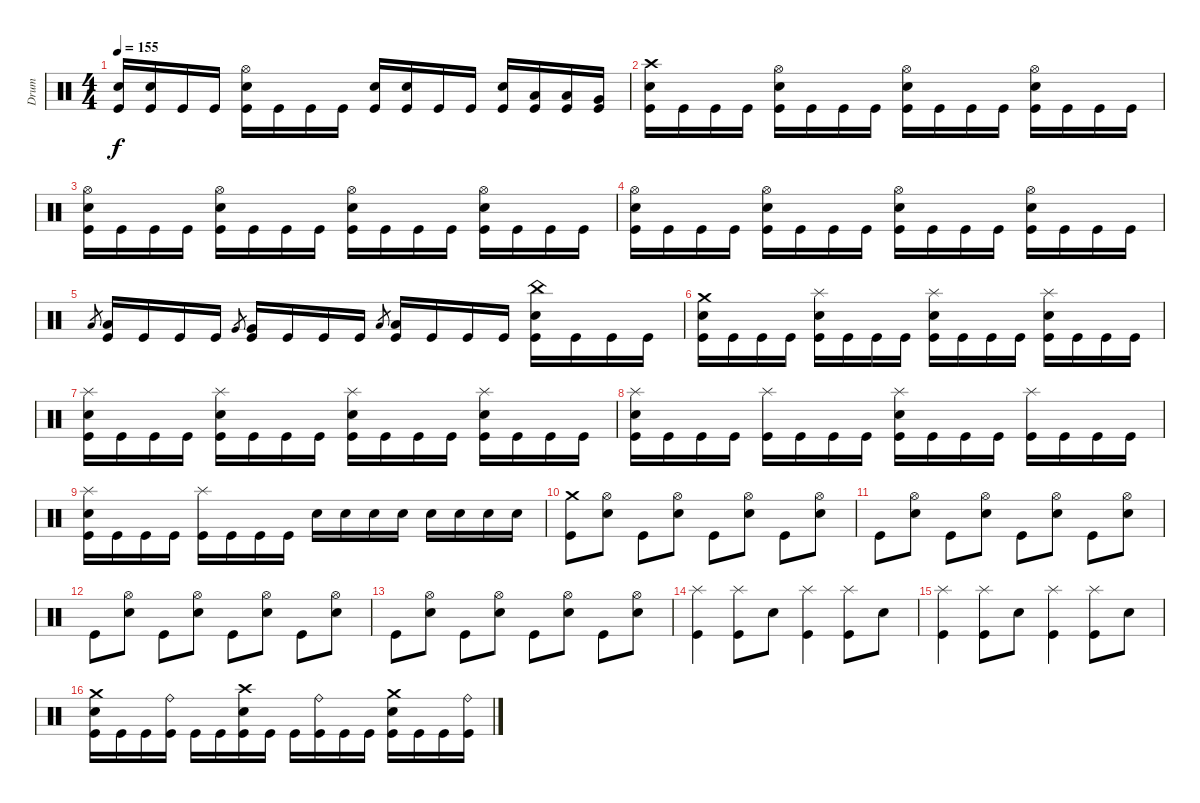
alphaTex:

\track ("Drum" "Drum") {instrument percussion}
\staff {score}
\articulation defaults
\ts (4 4)
\tempo 155
\clef neutral
\ks c
("Kick (hit)" "Electric Snare (hit)").16{dy f} ("Kick (hit)" "Electric Snare (hit)").16 "Kick (hit)".16 "Kick (hit)".16 ("Kick (hit)" "Electric Snare (hit)" "Hi-Hat (open)").16 "Kick (hit)".16 "Kick (hit)".16 "Kick (hit)".16 ("Kick (hit)" "Electric Snare (hit)").16 ("Kick (hit)" "Electric Snare (hit)").16 "Kick (hit)".16 "Kick (hit)".16 ("Kick (hit)" "Electric Snare (hit)").16 ("Kick (hit)" "Low Tom (hit)").16 ("Kick (hit)" "Low Tom (hit)").16 ("Kick (hit)" "Very Low Tom (hit)").16 |
("Kick (hit)" "Electric Snare (hit)" "Crash high (hit)").16 "Kick (hit)".16 "Kick (hit)".16 "Kick (hit)".16 ("Kick (hit)" "Electric Snare (hit)" "Hi-Hat (open)").16 "Kick (hit)".16 "Kick (hit)".16 "Kick (hit)".16 ("Kick (hit)" "Electric Snare (hit)" "Hi-Hat (open)").16 "Kick (hit)".16 "Kick (hit)".16 "Kick (hit)".16 ("Kick (hit)" "Electric Snare (hit)" "Hi-Hat (open)").16 "Kick (hit)".16 "Kick (hit)".16 "Kick (hit)".16 |
("Kick (hit)" "Electric Snare (hit)" "Hi-Hat (open)").16 "Kick (hit)".16 "Kick (hit)".16 "Kick (hit)".16 ("Kick (hit)" "Electric Snare (hit)" "Hi-Hat (open)").16 "Kick (hit)".16 "Kick (hit)".16 "Kick (hit)".16 ("Kick (hit)" "Electric Snare (hit)" "Hi-Hat (open)").16 "Kick (hit)".16 "Kick (hit)".16 "Kick (hit)".16 ("Kick (hit)" "Electric Snare (hit)" "Hi-Hat (open)").16 "Kick (hit)".16 "Kick (hit)".16 "Kick (hit)".16 |
("Kick (hit)" "Electric Snare (hit)" "Hi-Hat (open)").16 "Kick (hit)".16 "Kick (hit)".16 "Kick (hit)".16 ("Kick (hit)" "Electric Snare (hit)" "Hi-Hat (open)").16 "Kick (hit)".16 "Kick (hit)".16 "Kick (hit)".16 ("Kick (hit)" "Electric Snare (hit)" "Hi-Hat (open)").16 "Kick (hit)".16 "Kick (hit)".16 "Kick (hit)".16 ("Kick (hit)" "Electric Snare (hit)" "Hi-Hat (open)").16 "Kick (hit)".16 "Kick (hit)".16 "Kick (hit)".16 |
"Low Tom (hit)".8{gr} ("Kick (hit)" "Low Tom (hit)").16 "Kick (hit)".16 "Kick (hit)".16 "Kick (hit)".16 "Very Low Tom (hit)".8{gr} ("Kick (hit)" "Very Low Tom (hit)").16 "Kick (hit)".16 "Kick (hit)".16 "Kick (hit)".16 "Low Floor Tom (hit)".8{gr} ("Kick (hit)" "Low Floor Tom (hit)").16 "Kick (hit)".16 "Kick (hit)".16 "Kick (hit)".16 ("Kick (hit)" "Electric Snare (hit)" "China (hit)").16 "Kick (hit)".16 "Kick (hit)".16 "Kick (hit)".16 |
("Kick (hit)" "Electric Snare (hit)" "Crash medium (hit)").16 "Kick (hit)".16 "Kick (hit)".16 "Kick (hit)".16 ("Kick (hit)" "Electric Snare (hit)" "Splash (hit)").16 "Kick (hit)".16 "Kick (hit)".16 "Kick (hit)".16 ("Kick (hit)" "Electric Snare (hit)" "Splash (hit)").16 "Kick (hit)".16 "Kick (hit)".16 "Kick (hit)".16 ("Kick (hit)" "Electric Snare (hit)" "Splash (hit)").16 "Kick (hit)".16 "Kick (hit)".16 "Kick (hit)".16 |
("Kick (hit)" "Electric Snare (hit)" "Splash (hit)").16 "Kick (hit)".16 "Kick (hit)".16 "Kick (hit)".16 ("Kick (hit)" "Electric Snare (hit)" "Splash (hit)").16 "Kick (hit)".16 "Kick (hit)".16 "Kick (hit)".16 ("Kick (hit)" "Electric Snare (hit)" "Splash (hit)").16 "Kick (hit)".16 "Kick (hit)".16 "Kick (hit)".16 ("Kick (hit)" "Electric Snare (hit)" "Splash (hit)").16 "Kick (hit)".16 "Kick (hit)".16 "Kick (hit)".16 |
("Kick (hit)" "Electric Snare (hit)" "Splash (hit)").16 "Kick (hit)".16 "Kick (hit)".16 "Kick (hit)".16 ("Kick (hit)" "Splash (hit)").16 "Kick (hit)".16 "Kick (hit)".16 "Kick (hit)".16 ("Kick (hit)" "Electric Snare (hit)" "Splash (hit)").16 "Kick (hit)".16 "Kick (hit)".16 "Kick (hit)".16 ("Kick (hit)" "Splash (hit)").16 "Kick (hit)".16 "Kick (hit)".16 "Kick (hit)".16 |
("Kick (hit)" "Electric Snare (hit)" "Splash (hit)").16 "Kick (hit)".16 "Kick (hit)".16 "Kick (hit)".16 ("Kick (hit)" "Splash (hit)").16 "Kick (hit)".16 "Kick (hit)".16 "Kick (hit)".16 "Electric Snare (hit)".16 "Electric Snare (hit)".16 "Electric Snare (hit)".16 "Electric Snare (hit)".16 "Electric Snare (hit)".16 "Electric Snare (hit)".16 "Electric Snare (hit)".16 "Electric Snare (hit)".16 |
("Kick (hit)" "Crash medium (hit)").8 ("Electric Snare (hit)" "Hi-Hat (open)").8 "Kick (hit)".8 ("Electric Snare (hit)" "Hi-Hat (open)").8 "Kick (hit)".8 ("Electric Snare (hit)" "Hi-Hat (open)").8 "Kick (hit)".8 ("Electric Snare (hit)" "Hi-Hat (open)").8 |
"Kick (hit)".8 ("Electric Snare (hit)" "Hi-Hat (open)").8 "Kick (hit)".8 ("Electric Snare (hit)" "Hi-Hat (open)").8 "Kick (hit)".8 ("Electric Snare (hit)" "Hi-Hat (open)").8 "Kick (hit)".8 ("Electric Snare (hit)" "Hi-Hat (open)").8 |
"Kick (hit)".8 ("Electric Snare (hit)" "Hi-Hat (open)").8 "Kick (hit)".8 ("Electric Snare (hit)" "Hi-Hat (open)").8 "Kick (hit)".8 ("Electric Snare (hit)" "Hi-Hat (open)").8 "Kick (hit)".8 ("Electric Snare (hit)" "Hi-Hat (open)").8 |
"Kick (hit)".8 ("Electric Snare (hit)" "Hi-Hat (open)").8 "Kick (hit)".8 ("Electric Snare (hit)" "Hi-Hat (open)").8 "Kick (hit)".8 ("Electric Snare (hit)" "Hi-Hat (open)").8 "Kick (hit)".8 ("Electric Snare (hit)" "Hi-Hat (open)").8 |
("Kick (hit)" "Splash (hit)").4 ("Kick (hit)" "Splash (hit)").8 "Electric Snare (hit)".8 ("Kick (hit)" "Splash (hit)").4 ("Kick (hit)" "Splash (hit)").8 "Electric Snare (hit)".8 |
("Kick (hit)" "Splash (hit)").4 ("Kick (hit)" "Splash (hit)").8 "Electric Snare (hit)".8 ("Kick (hit)" "Splash (hit)").4 ("Kick (hit)" "Splash (hit)").8 "Electric Snare (hit)".8 |
("Kick (hit)" "Electric Snare (hit)" "Crash medium (hit)").16 "Kick (hit)".16 "Kick (hit)".16 ("Kick (hit)" "Ride (bell)").16 "Kick (hit)".16 "Kick (hit)".16 ("Kick (hit)" "Electric Snare (hit)" "Crash high (hit)").16 "Kick (hit)".16 "Kick (hit)".16 ("Kick (hit)" "Ride (bell)").16 "Kick (hit)".16 "Kick (hit)".16 ("Kick (hit)" "Electric Snare (hit)" "Crash medium (hit)").16 "Kick (hit)".16 "Kick (hit)".16 ("Kick (hit)" "Ride (bell)").16
